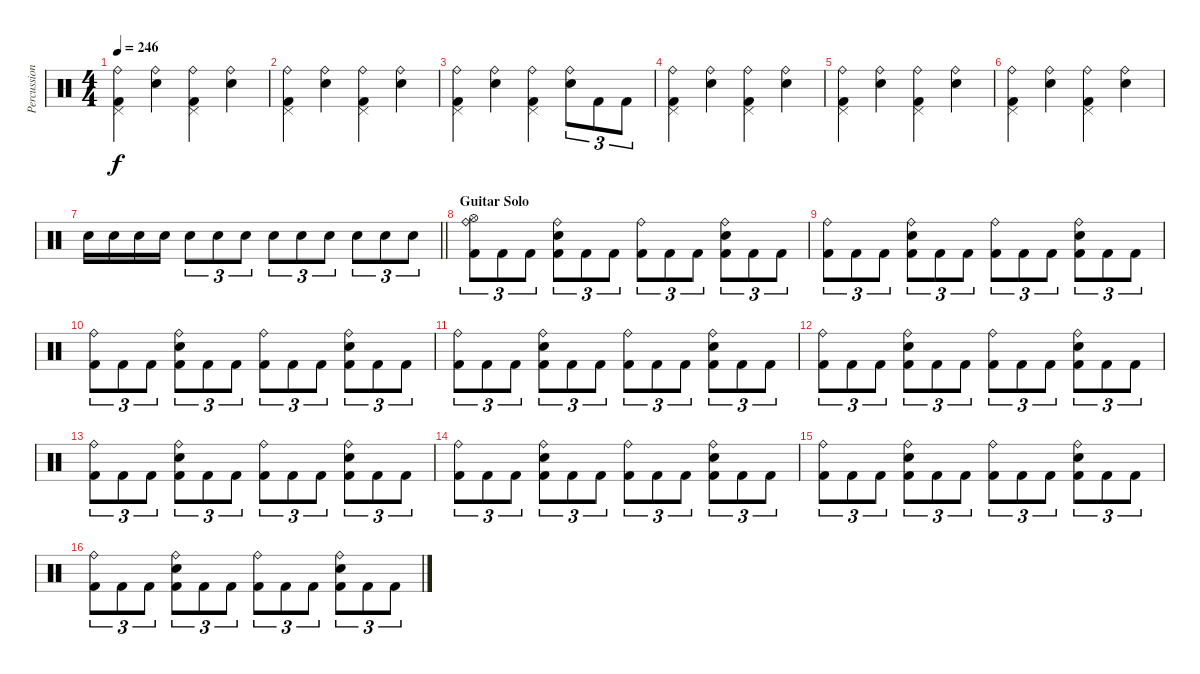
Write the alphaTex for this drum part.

\track ("Percussions" "Percussion") {instrument percussion}
\staff {score}
\articulation defaults
\ts (4 4)
\tempo 246
\clef neutral
\ks c
("Ride (bell)" "Pedal Hi-Hat (hit)" "Kick (hit) 2").4{dy f} ("Ride (bell)" "Electric Snare (hit)").4 ("Ride (bell)" "Pedal Hi-Hat (hit)" "Kick (hit) 2").4 ("Ride (bell)" "Electric Snare (hit)").4 |
("Ride (bell)" "Pedal Hi-Hat (hit)" "Kick (hit) 2").4 ("Ride (bell)" "Electric Snare (hit)").4 ("Ride (bell)" "Pedal Hi-Hat (hit)" "Kick (hit) 2").4 ("Ride (bell)" "Electric Snare (hit)").4 |
("Ride (bell)" "Pedal Hi-Hat (hit)" "Kick (hit) 2").4 ("Ride (bell)" "Electric Snare (hit)").4 ("Ride (bell)" "Pedal Hi-Hat (hit)" "Kick (hit) 2").4 ("Ride (bell)" "Electric Snare (hit)").8{tu (3 2)} "Kick (hit) 2".8{tu (3 2)} "Kick (hit) 2".8{tu (3 2)} |
("Ride (bell)" "Pedal Hi-Hat (hit)" "Kick (hit) 2").4 ("Ride (bell)" "Electric Snare (hit)").4 ("Ride (bell)" "Pedal Hi-Hat (hit)" "Kick (hit) 2").4 ("Ride (bell)" "Electric Snare (hit)").4 |
("Ride (bell)" "Pedal Hi-Hat (hit)" "Kick (hit) 2").4 ("Ride (bell)" "Electric Snare (hit)").4 ("Ride (bell)" "Pedal Hi-Hat (hit)" "Kick (hit) 2").4 ("Ride (bell)" "Electric Snare (hit)").4 |
("Ride (bell)" "Pedal Hi-Hat (hit)" "Kick (hit) 2").4 ("Ride (bell)" "Electric Snare (hit)").4 ("Ride (bell)" "Pedal Hi-Hat (hit)" "Kick (hit) 2").4 ("Ride (bell)" "Electric Snare (hit)").4 |
\barLineRight lightlight "Electric Snare (hit)".16 "Electric Snare (hit)".16 "Electric Snare (hit)".16 "Electric Snare (hit)".16 "Electric Snare (hit)".8{tu (3 2)} "Electric Snare (hit)".8{tu (3 2)} "Electric Snare (hit)".8{tu (3 2)} "Electric Snare (hit)".8{tu (3 2)} "Electric Snare (hit)".8{tu (3 2)} "Electric Snare (hit)".8{tu (3 2)} "Electric Snare (hit)".8{tu (3 2)} "Electric Snare (hit)".8{tu (3 2)} "Electric Snare (hit)".8{tu (3 2)}
|
\section ("" "Guitar Solo")
("Ride (bell)" "Hi-Hat (open)" "Kick (hit) 2").8{tu (3 2)} "Kick (hit) 2".8{tu (3 2)} "Kick (hit) 2".8{tu (3 2)} ("Ride (bell)" "Electric Snare (hit)" "Kick (hit) 2").8{tu (3 2)} "Kick (hit) 2".8{tu (3 2)} "Kick (hit) 2".8{tu (3 2)} ("Ride (bell)" "Kick (hit) 2").8{tu (3 2)} "Kick (hit) 2".8{tu (3 2)} "Kick (hit) 2".8{tu (3 2)} ("Ride (bell)" "Electric Snare (hit)" "Kick (hit) 2").8{tu (3 2)} "Kick (hit) 2".8{tu (3 2)} "Kick (hit) 2".8{tu (3 2)} |
("Ride (bell)" "Kick (hit) 2").8{tu (3 2)} "Kick (hit) 2".8{tu (3 2)} "Kick (hit) 2".8{tu (3 2)} ("Ride (bell)" "Electric Snare (hit)" "Kick (hit) 2").8{tu (3 2)} "Kick (hit) 2".8{tu (3 2)} "Kick (hit) 2".8{tu (3 2)} ("Ride (bell)" "Kick (hit) 2").8{tu (3 2)} "Kick (hit) 2".8{tu (3 2)} "Kick (hit) 2".8{tu (3 2)} ("Ride (bell)" "Electric Snare (hit)" "Kick (hit) 2").8{tu (3 2)} "Kick (hit) 2".8{tu (3 2)} "Kick (hit) 2".8{tu (3 2)} |
("Ride (bell)" "Kick (hit) 2").8{tu (3 2)} "Kick (hit) 2".8{tu (3 2)} "Kick (hit) 2".8{tu (3 2)} ("Ride (bell)" "Electric Snare (hit)" "Kick (hit) 2").8{tu (3 2)} "Kick (hit) 2".8{tu (3 2)} "Kick (hit) 2".8{tu (3 2)} ("Ride (bell)" "Kick (hit) 2").8{tu (3 2)} "Kick (hit) 2".8{tu (3 2)} "Kick (hit) 2".8{tu (3 2)} ("Ride (bell)" "Electric Snare (hit)" "Kick (hit) 2").8{tu (3 2)} "Kick (hit) 2".8{tu (3 2)} "Kick (hit) 2".8{tu (3 2)} |
("Ride (bell)" "Kick (hit) 2").8{tu (3 2)} "Kick (hit) 2".8{tu (3 2)} "Kick (hit) 2".8{tu (3 2)} ("Ride (bell)" "Electric Snare (hit)" "Kick (hit) 2").8{tu (3 2)} "Kick (hit) 2".8{tu (3 2)} "Kick (hit) 2".8{tu (3 2)} ("Ride (bell)" "Kick (hit) 2").8{tu (3 2)} "Kick (hit) 2".8{tu (3 2)} "Kick (hit) 2".8{tu (3 2)} ("Ride (bell)" "Electric Snare (hit)" "Kick (hit) 2").8{tu (3 2)} "Kick (hit) 2".8{tu (3 2)} "Kick (hit) 2".8{tu (3 2)} |
("Ride (bell)" "Kick (hit) 2").8{tu (3 2)} "Kick (hit) 2".8{tu (3 2)} "Kick (hit) 2".8{tu (3 2)} ("Ride (bell)" "Electric Snare (hit)" "Kick (hit) 2").8{tu (3 2)} "Kick (hit) 2".8{tu (3 2)} "Kick (hit) 2".8{tu (3 2)} ("Ride (bell)" "Kick (hit) 2").8{tu (3 2)} "Kick (hit) 2".8{tu (3 2)} "Kick (hit) 2".8{tu (3 2)} ("Ride (bell)" "Electric Snare (hit)" "Kick (hit) 2").8{tu (3 2)} "Kick (hit) 2".8{tu (3 2)} "Kick (hit) 2".8{tu (3 2)} |
("Ride (bell)" "Kick (hit) 2").8{tu (3 2)} "Kick (hit) 2".8{tu (3 2)} "Kick (hit) 2".8{tu (3 2)} ("Ride (bell)" "Electric Snare (hit)" "Kick (hit) 2").8{tu (3 2)} "Kick (hit) 2".8{tu (3 2)} "Kick (hit) 2".8{tu (3 2)} ("Ride (bell)" "Kick (hit) 2").8{tu (3 2)} "Kick (hit) 2".8{tu (3 2)} "Kick (hit) 2".8{tu (3 2)} ("Ride (bell)" "Electric Snare (hit)" "Kick (hit) 2").8{tu (3 2)} "Kick (hit) 2".8{tu (3 2)} "Kick (hit) 2".8{tu (3 2)} |
("Ride (bell)" "Kick (hit) 2").8{tu (3 2)} "Kick (hit) 2".8{tu (3 2)} "Kick (hit) 2".8{tu (3 2)} ("Ride (bell)" "Electric Snare (hit)" "Kick (hit) 2").8{tu (3 2)} "Kick (hit) 2".8{tu (3 2)} "Kick (hit) 2".8{tu (3 2)} ("Ride (bell)" "Kick (hit) 2").8{tu (3 2)} "Kick (hit) 2".8{tu (3 2)} "Kick (hit) 2".8{tu (3 2)} ("Ride (bell)" "Electric Snare (hit)" "Kick (hit) 2").8{tu (3 2)} "Kick (hit) 2".8{tu (3 2)} "Kick (hit) 2".8{tu (3 2)} |
("Ride (bell)" "Kick (hit) 2").8{tu (3 2)} "Kick (hit) 2".8{tu (3 2)} "Kick (hit) 2".8{tu (3 2)} ("Ride (bell)" "Electric Snare (hit)" "Kick (hit) 2").8{tu (3 2)} "Kick (hit) 2".8{tu (3 2)} "Kick (hit) 2".8{tu (3 2)} ("Ride (bell)" "Kick (hit) 2").8{tu (3 2)} "Kick (hit) 2".8{tu (3 2)} "Kick (hit) 2".8{tu (3 2)} ("Ride (bell)" "Electric Snare (hit)" "Kick (hit) 2").8{tu (3 2)} "Kick (hit) 2".8{tu (3 2)} "Kick (hit) 2".8{tu (3 2)} |
("Ride (bell)" "Kick (hit) 2").8{tu (3 2)} "Kick (hit) 2".8{tu (3 2)} "Kick (hit) 2".8{tu (3 2)} ("Ride (bell)" "Electric Snare (hit)" "Kick (hit) 2").8{tu (3 2)} "Kick (hit) 2".8{tu (3 2)} "Kick (hit) 2".8{tu (3 2)} ("Ride (bell)" "Kick (hit) 2").8{tu (3 2)} "Kick (hit) 2".8{tu (3 2)} "Kick (hit) 2".8{tu (3 2)} ("Ride (bell)" "Electric Snare (hit)" "Kick (hit) 2").8{tu (3 2)} "Kick (hit) 2".8{tu (3 2)} "Kick (hit) 2".8{tu (3 2)}
